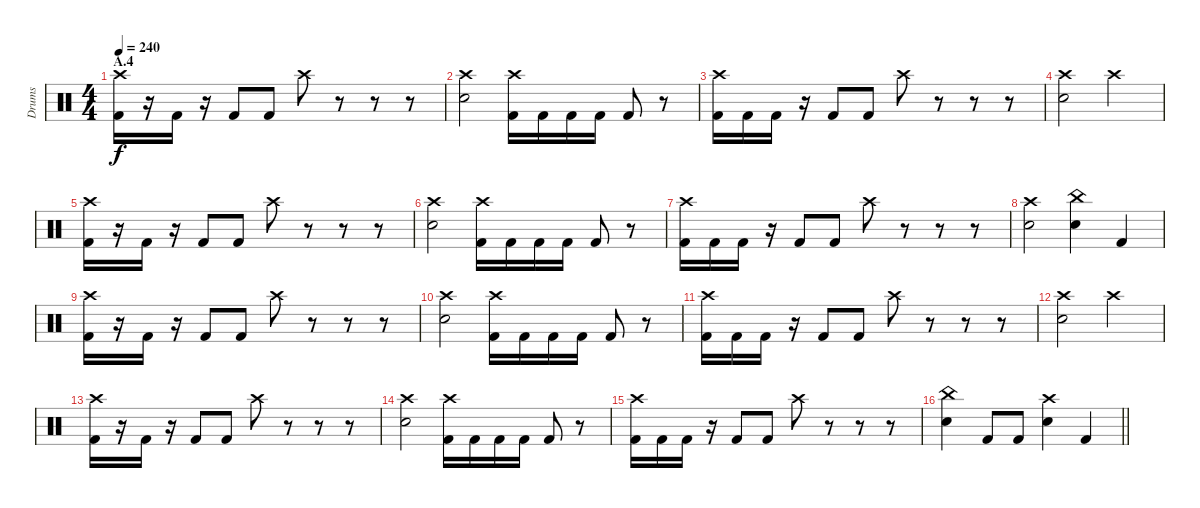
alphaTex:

\track ("Drums" "Drums") {instrument percussion}
\staff {score}
\articulation defaults
\ts (4 4)
\section ("" "A.4")
\tempo 240
\clef neutral
\ks c
("Crash high (hit)" "Kick (hit) 2").16{dy f} r.16 "Kick (hit) 2".16 r.16 "Kick (hit) 2".8 "Kick (hit) 2".8 "Crash high (hit)".8 r.8 r.8 r.8 |
("Crash high (hit)" "Electric Snare (hit)").2 ("Crash high (hit)" "Kick (hit) 2").16 "Kick (hit) 2".16 "Kick (hit) 2".16 "Kick (hit) 2".16 "Kick (hit) 2".8 r.8 |
("Crash high (hit)" "Kick (hit) 2").16 "Kick (hit) 2".16 "Kick (hit) 2".16 r.16 "Kick (hit) 2".8 "Kick (hit) 2".8 "Crash high (hit)".8 r.8 r.8 r.8 |
("Crash high (hit)" "Electric Snare (hit)").2 "Crash high (hit)".2 |
("Crash high (hit)" "Kick (hit) 2").16 r.16 "Kick (hit) 2".16 r.16 "Kick (hit) 2".8 "Kick (hit) 2".8 "Crash high (hit)".8 r.8 r.8 r.8 |
("Crash high (hit)" "Electric Snare (hit)").2 ("Crash high (hit)" "Kick (hit) 2").16 "Kick (hit) 2".16 "Kick (hit) 2".16 "Kick (hit) 2".16 "Kick (hit) 2".8 r.8 |
("Crash high (hit)" "Kick (hit) 2").16 "Kick (hit) 2".16 "Kick (hit) 2".16 r.16 "Kick (hit) 2".8 "Kick (hit) 2".8 "Crash high (hit)".8 r.8 r.8 r.8 |
("Crash high (hit)" "Electric Snare (hit)").2 ("China (hit)" "Electric Snare (hit)").4 "Kick (hit) 2".4 |
("Crash high (hit)" "Kick (hit) 2").16 r.16 "Kick (hit) 2".16 r.16 "Kick (hit) 2".8 "Kick (hit) 2".8 "Crash high (hit)".8 r.8 r.8 r.8 |
("Crash high (hit)" "Electric Snare (hit)").2 ("Crash high (hit)" "Kick (hit) 2").16 "Kick (hit) 2".16 "Kick (hit) 2".16 "Kick (hit) 2".16 "Kick (hit) 2".8 r.8 |
("Crash high (hit)" "Kick (hit) 2").16 "Kick (hit) 2".16 "Kick (hit) 2".16 r.16 "Kick (hit) 2".8 "Kick (hit) 2".8 "Crash high (hit)".8 r.8 r.8 r.8 |
("Crash high (hit)" "Electric Snare (hit)").2 "Crash high (hit)".2 |
("Crash high (hit)" "Kick (hit) 2").16 r.16 "Kick (hit) 2".16 r.16 "Kick (hit) 2".8 "Kick (hit) 2".8 "Crash high (hit)".8 r.8 r.8 r.8 |
("Crash high (hit)" "Electric Snare (hit)").2 ("Crash high (hit)" "Kick (hit) 2").16 "Kick (hit) 2".16 "Kick (hit) 2".16 "Kick (hit) 2".16 "Kick (hit) 2".8 r.8 |
("Crash high (hit)" "Kick (hit) 2").16 "Kick (hit) 2".16 "Kick (hit) 2".16 r.16 "Kick (hit) 2".8 "Kick (hit) 2".8 "Crash high (hit)".8 r.8 r.8 r.8 |
\barLineRight lightlight
("China (hit)" "Electric Snare (hit)").4 "Kick (hit) 2".8 "Kick (hit) 2".8 ("Crash high (hit)" "Electric Snare (hit)").4 "Kick (hit) 2".4
